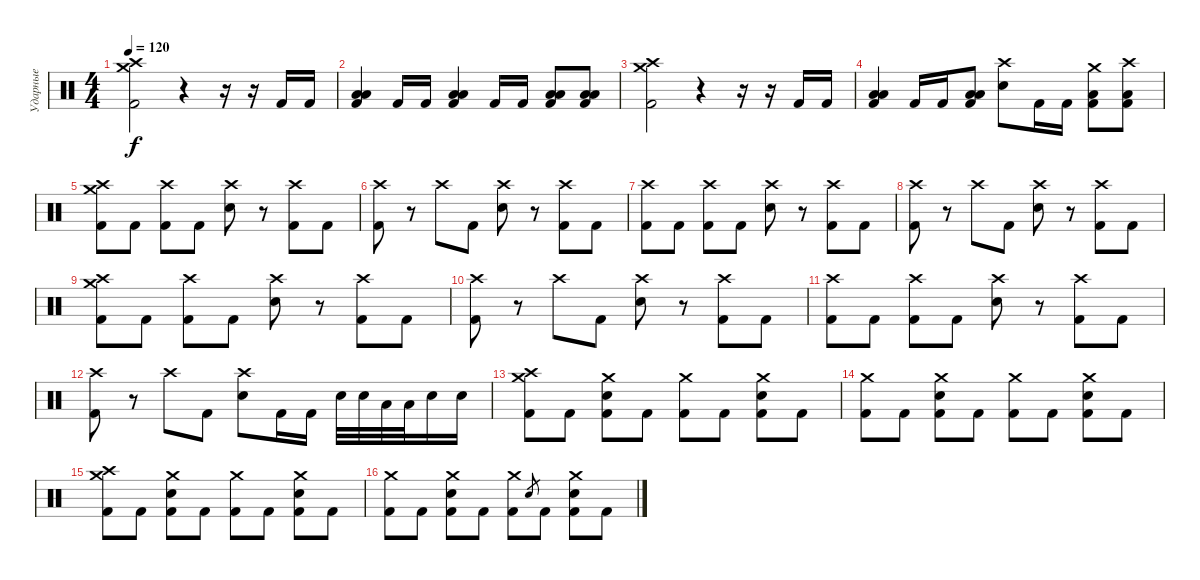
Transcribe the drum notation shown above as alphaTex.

\track ("Ударные" "Ударные") {instrument percussion}
\staff {score}
\articulation defaults
\ts (4 4)
\tempo 120
\clef neutral
\ks c
("Crash medium (hit)" "Crash high (hit)" "Kick (hit) 2").2{dy f} r.4 r.16 r.16 "Kick (hit) 2".16 "Kick (hit) 2".16 |
("Low Tom (hit)" "Low Floor Tom (hit)" "Kick (hit) 2").4 "Kick (hit) 2".16 "Kick (hit) 2".16 ("Low Tom (hit)" "Low Floor Tom (hit)" "Kick (hit) 2").4 "Kick (hit) 2".16 "Kick (hit) 2".16 ("Low Tom (hit)" "Low Floor Tom (hit)" "Kick (hit) 2").8 ("Low Tom (hit)" "Low Floor Tom (hit)" "Kick (hit) 2").8 |
("Crash medium (hit)" "Crash high (hit)" "Kick (hit) 2").2 r.4 r.16 r.16 "Kick (hit) 2".16 "Kick (hit) 2".16 |
("Low Tom (hit)" "Low Floor Tom (hit)" "Kick (hit) 2").4 "Kick (hit) 2".16 "Kick (hit) 2".16 ("Low Tom (hit)" "Low Floor Tom (hit)" "Kick (hit) 2").8 ("Crash high (hit)" "Electric Snare (hit)").8 "Kick (hit) 2".16 "Kick (hit) 2".16 ("Crash medium (hit)" "Low Tom (hit)" "Kick (hit) 2").8 ("Crash high (hit)" "Low Floor Tom (hit)" "Kick (hit) 2").8 |
("Crash medium (hit)" "Crash high (hit)" "Kick (hit) 2").8 "Kick (hit) 2".8 ("Crash high (hit)" "Kick (hit) 2").8 "Kick (hit) 2".8 ("Crash high (hit)" "Electric Snare (hit)").8 r.8 ("Crash high (hit)" "Kick (hit) 2").8 "Kick (hit) 2".8 |
("Crash high (hit)" "Kick (hit) 2").8 r.8 "Crash high (hit)".8 "Kick (hit) 2".8 ("Crash high (hit)" "Electric Snare (hit)").8 r.8 ("Crash high (hit)" "Kick (hit) 2").8 "Kick (hit) 2".8 |
("Crash high (hit)" "Kick (hit) 2").8 "Kick (hit) 2".8 ("Crash high (hit)" "Kick (hit) 2").8 "Kick (hit) 2".8 ("Crash high (hit)" "Electric Snare (hit)").8 r.8 ("Crash high (hit)" "Kick (hit) 2").8 "Kick (hit) 2".8 |
("Crash high (hit)" "Kick (hit) 2").8 r.8 "Crash high (hit)".8 "Kick (hit) 2".8 ("Crash high (hit)" "Electric Snare (hit)").8 r.8 ("Crash high (hit)" "Kick (hit) 2").8 "Kick (hit) 2".8 |
("Crash medium (hit)" "Crash high (hit)" "Kick (hit) 2").8 "Kick (hit) 2".8 ("Crash high (hit)" "Kick (hit) 2").8 "Kick (hit) 2".8 ("Crash high (hit)" "Electric Snare (hit)").8 r.8 ("Crash high (hit)" "Kick (hit) 2").8 "Kick (hit) 2".8 |
("Crash high (hit)" "Kick (hit) 2").8 r.8 "Crash high (hit)".8 "Kick (hit) 2".8 ("Crash high (hit)" "Electric Snare (hit)").8 r.8 ("Crash high (hit)" "Kick (hit) 2").8 "Kick (hit) 2".8 |
("Crash high (hit)" "Kick (hit) 2").8 "Kick (hit) 2".8 ("Crash high (hit)" "Kick (hit) 2").8 "Kick (hit) 2".8 ("Crash high (hit)" "Electric Snare (hit)").8 r.8 ("Crash high (hit)" "Kick (hit) 2").8 "Kick (hit) 2".8 |
("Crash high (hit)" "Kick (hit) 2").8 r.8 "Crash high (hit)".8 "Kick (hit) 2".8 ("Crash high (hit)" "Electric Snare (hit)").8 "Kick (hit) 2".16 "Kick (hit) 2".16 "Electric Snare (hit)".32 "Electric Snare (hit)".32 "Low Tom (hit)".32 "Low Tom (hit)".32 "Electric Snare (hit)".16 "Electric Snare (hit)".16 |
("Crash medium (hit)" "Crash high (hit)" "Kick (hit) 2").8 "Kick (hit) 2".8 ("Crash medium (hit)" "Electric Snare (hit)" "Kick (hit) 2").8 "Kick (hit) 2".8 ("Crash medium (hit)" "Kick (hit) 2").8 "Kick (hit) 2".8 ("Crash medium (hit)" "Electric Snare (hit)" "Kick (hit) 2").8 "Kick (hit) 2".8 |
("Crash medium (hit)" "Kick (hit) 2").8 "Kick (hit) 2".8 ("Crash medium (hit)" "Electric Snare (hit)" "Kick (hit) 2").8 "Kick (hit) 2".8 ("Crash medium (hit)" "Kick (hit) 2").8 "Kick (hit) 2".8 ("Crash medium (hit)" "Electric Snare (hit)" "Kick (hit) 2").8 "Kick (hit) 2".8 |
("Crash medium (hit)" "Crash high (hit)" "Kick (hit) 2").8 "Kick (hit) 2".8 ("Crash medium (hit)" "Electric Snare (hit)" "Kick (hit) 2").8 "Kick (hit) 2".8 ("Crash medium (hit)" "Kick (hit) 2").8 "Kick (hit) 2".8 ("Crash medium (hit)" "Electric Snare (hit)" "Kick (hit) 2").8 "Kick (hit) 2".8 |
("Crash medium (hit)" "Kick (hit) 2").8 "Kick (hit) 2".8 ("Crash medium (hit)" "Electric Snare (hit)" "Kick (hit) 2").8 "Kick (hit) 2".8 ("Crash medium (hit)" "Kick (hit) 2").8 "Electric Snare (hit)".8{gr} "Kick (hit) 2".8 ("Crash medium (hit)" "Electric Snare (hit)" "Kick (hit) 2").8 "Kick (hit) 2".8
